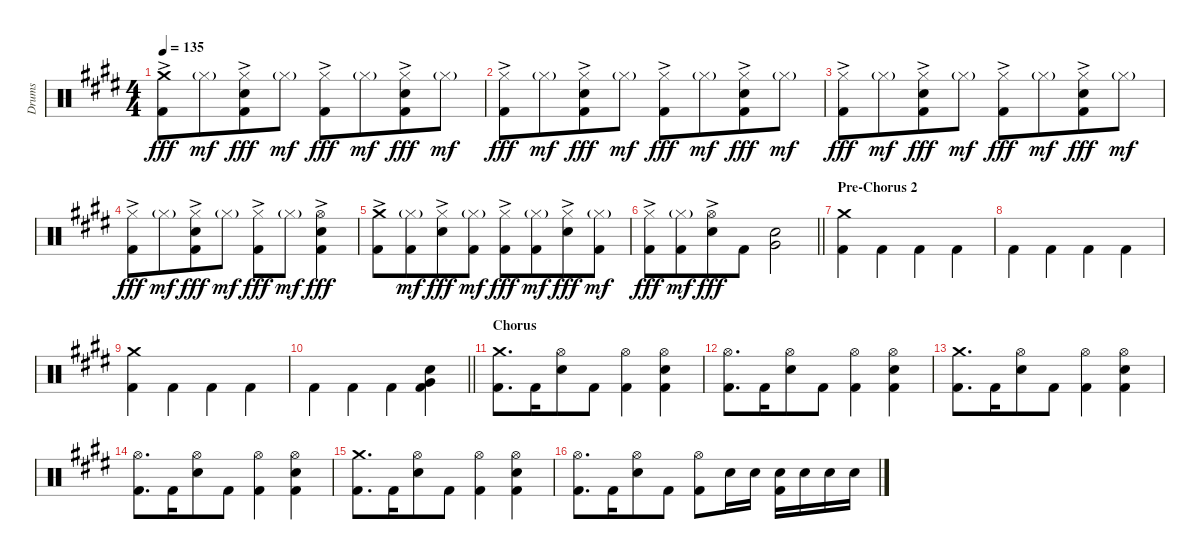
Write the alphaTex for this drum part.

\track ("Drums" "Drums") {instrument percussion}
\staff {score}
\articulation defaults
\ts (4 4)
\tempo 135
\clef neutral
\ks c#minor
("Kick (hit) 2" "Crash medium (hit)"{ac}).8{dy fff} "Hi-Hat (closed)"{g}.8{dy mf beam merge} ("Kick (hit) 2" "Hi-Hat (closed)"{ac} "Snare (hit) 2").8{dy fff} "Hi-Hat (closed)"{g}.8{dy mf beam split} ("Kick (hit) 2" "Hi-Hat (closed)"{ac}).8{dy fff} "Hi-Hat (closed)"{g}.8{dy mf beam merge} ("Kick (hit) 2" "Hi-Hat (closed)"{ac} "Snare (hit) 2").8{dy fff} "Hi-Hat (closed)"{g}.8{dy mf} |
("Kick (hit) 2" "Hi-Hat (closed)"{ac}).8{dy fff} "Hi-Hat (closed)"{g}.8{dy mf beam merge} ("Kick (hit) 2" "Hi-Hat (closed)"{ac} "Snare (hit) 2").8{dy fff} "Hi-Hat (closed)"{g}.8{dy mf beam split} ("Kick (hit) 2" "Hi-Hat (closed)"{ac}).8{dy fff} "Hi-Hat (closed)"{g}.8{dy mf beam merge} ("Kick (hit) 2" "Hi-Hat (closed)"{ac} "Snare (hit) 2").8{dy fff} "Hi-Hat (closed)"{g}.8{dy mf} |
("Kick (hit) 2" "Hi-Hat (closed)"{ac}).8{dy fff} "Hi-Hat (closed)"{g}.8{dy mf beam merge} ("Kick (hit) 2" "Hi-Hat (closed)"{ac} "Snare (hit) 2").8{dy fff} "Hi-Hat (closed)"{g}.8{dy mf beam split} ("Kick (hit) 2" "Hi-Hat (closed)"{ac}).8{dy fff} "Hi-Hat (closed)"{g}.8{dy mf beam merge} ("Kick (hit) 2" "Hi-Hat (closed)"{ac} "Snare (hit) 2").8{dy fff} "Hi-Hat (closed)"{g}.8{dy mf} |
("Kick (hit) 2" "Hi-Hat (closed)"{ac}).8{dy fff} "Hi-Hat (closed)"{g}.8{dy mf beam merge} ("Kick (hit) 2" "Hi-Hat (closed)"{ac} "Snare (hit) 2").8{dy fff} "Hi-Hat (closed)"{g}.8{dy mf beam split} ("Kick (hit) 2" "Hi-Hat (closed)"{ac}).8{dy fff} "Hi-Hat (closed)"{g}.8{dy mf beam merge} ("Kick (hit) 2" "Hi-Hat (open)"{ac} "Snare (hit) 2").4{dy fff} |
("Kick (hit) 2" "Crash medium (hit)"{ac}).8 ("Kick (hit) 2" "Hi-Hat (closed)"{g}).8{dy mf beam merge} ("Hi-Hat (closed)"{ac} "Snare (hit) 2").8{dy fff} ("Kick (hit) 2" "Hi-Hat (closed)"{g}).8{dy mf beam split} ("Kick (hit) 2" "Hi-Hat (closed)"{ac}).8{dy fff} ("Kick (hit) 2" "Hi-Hat (closed)"{g}).8{dy mf beam merge} ("Hi-Hat (closed)"{ac} "Snare (hit) 2").8{dy fff} ("Kick (hit) 2" "Hi-Hat (closed)"{g}).8{dy mf} |
\barLineRight lightlight
("Kick (hit) 2" "Hi-Hat (closed)"{ac}).8{dy fff} ("Kick (hit) 2" "Hi-Hat (closed)"{g}).8{dy mf beam merge} ("Hi-Hat (open)"{ac} "Snare (hit) 2").8{dy fff} "Kick (hit) 2".8 ("Very Low Tom (hit)" "Snare (hit) 2").2{beam Down} |
\section ("" "Pre-Chorus 2")
("Kick (hit) 2" "Crash medium (hit)").4{beam merge} "Kick (hit) 2".4{beam Down} "Kick (hit) 2".4{beam Down beam merge} "Kick (hit) 2".4{beam Down} |
"Kick (hit) 2".4{beam Down beam merge} "Kick (hit) 2".4{beam Down} "Kick (hit) 2".4{beam Down beam merge} "Kick (hit) 2".4{beam Down} |
("Kick (hit) 2" "Crash medium (hit)").4{beam merge} "Kick (hit) 2".4{beam Down} "Kick (hit) 2".4{beam Down beam merge} "Kick (hit) 2".4{beam Down} |
\barLineRight lightlight "Kick (hit) 2".4{beam Down beam merge} "Kick (hit) 2".4{beam Down} "Kick (hit) 2".4{beam Down beam merge}
("Kick (hit) 2" "Very Low Tom (hit)" "Snare (hit) 2").4{beam Down} |
\section ("" "Chorus")
("Kick (hit) 2" "Crash medium (hit)").8{d} "Kick (hit) 2".16{beam merge} ("Hi-Hat (open)" "Snare (hit) 2").8 "Kick (hit) 2".8 ("Kick (hit) 2" "Hi-Hat (open)").4{beam Down} ("Kick (hit) 2" "Hi-Hat (open)" "Snare (hit) 2").4 |
("Kick (hit) 2" "Hi-Hat (open)").8{d} "Kick (hit) 2".16{beam merge} ("Hi-Hat (open)" "Snare (hit) 2").8 "Kick (hit) 2".8 ("Kick (hit) 2" "Hi-Hat (open)").4{beam Down} ("Kick (hit) 2" "Hi-Hat (open)" "Snare (hit) 2").4 |
("Kick (hit) 2" "Crash medium (hit)").8{d} "Kick (hit) 2".16{beam merge} ("Hi-Hat (open)" "Snare (hit) 2").8 "Kick (hit) 2".8 ("Kick (hit) 2" "Hi-Hat (open)").4{beam Down} ("Kick (hit) 2" "Hi-Hat (open)" "Snare (hit) 2").4 |
("Kick (hit) 2" "Hi-Hat (open)").8{d} "Kick (hit) 2".16{beam merge} ("Hi-Hat (open)" "Snare (hit) 2").8 "Kick (hit) 2".8 ("Kick (hit) 2" "Hi-Hat (open)").4{beam Down} ("Kick (hit) 2" "Hi-Hat (open)" "Snare (hit) 2").4 |
("Kick (hit) 2" "Crash medium (hit)").8{d} "Kick (hit) 2".16{beam merge} ("Hi-Hat (open)" "Snare (hit) 2").8 "Kick (hit) 2".8 ("Kick (hit) 2" "Hi-Hat (open)").4{beam Down} ("Kick (hit) 2" "Hi-Hat (open)" "Snare (hit) 2").4 |
("Kick (hit) 2" "Hi-Hat (open)").8{d} "Kick (hit) 2".16{beam merge} ("Hi-Hat (open)" "Snare (hit) 2").8 "Kick (hit) 2".8 ("Kick (hit) 2" "Hi-Hat (open)").8 "Snare (hit) 2".16 "Snare (hit) 2".16 ("Kick (hit) 2" "Snare (hit) 2").16{beam Down} "Snare (hit) 2".16{beam Down} "Snare (hit) 2".16{beam Down} "Snare (hit) 2".16{beam Down}
